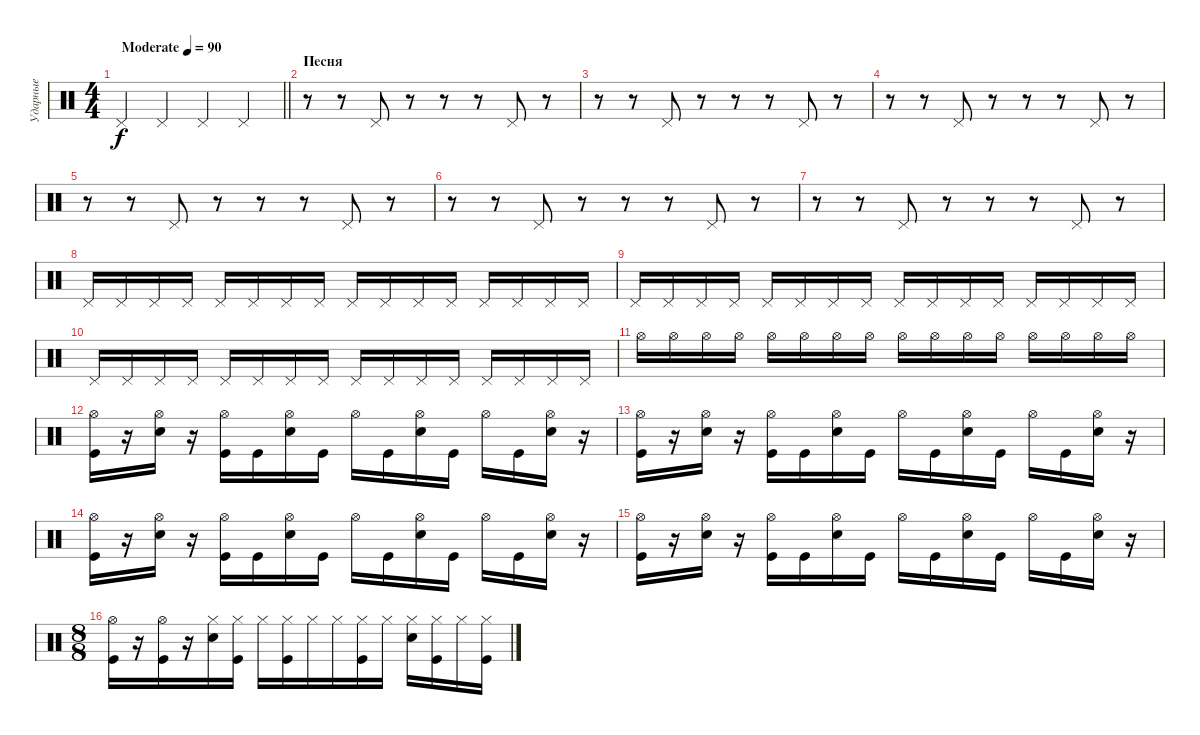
\track ("Ударные" "Ударные") {instrument percussion}
\staff {score}
\articulation defaults
\ts (4 4)
\tempo (90 "Moderate")
\clef neutral
\barLineRight lightlight
\ks c "Pedal Hi-Hat (hit)".4{dy f} "Pedal Hi-Hat (hit)".4 "Pedal Hi-Hat (hit)".4 "Pedal Hi-Hat (hit)".4
|
\section ("" "Песня")
r.8 r.8 "Pedal Hi-Hat (hit)".8 r.8 r.8 r.8 "Pedal Hi-Hat (hit)".8 r.8 |
r.8 r.8 "Pedal Hi-Hat (hit)".8 r.8 r.8 r.8 "Pedal Hi-Hat (hit)".8 r.8 |
r.8 r.8 "Pedal Hi-Hat (hit)".8 r.8 r.8 r.8 "Pedal Hi-Hat (hit)".8 r.8 |
r.8 r.8 "Pedal Hi-Hat (hit)".8 r.8 r.8 r.8 "Pedal Hi-Hat (hit)".8 r.8 |
r.8 r.8 "Pedal Hi-Hat (hit)".8 r.8 r.8 r.8 "Pedal Hi-Hat (hit)".8 r.8 |
r.8 r.8 "Pedal Hi-Hat (hit)".8 r.8 r.8 r.8 "Pedal Hi-Hat (hit)".8 r.8 |
"Pedal Hi-Hat (hit)".16 "Pedal Hi-Hat (hit)".16 "Pedal Hi-Hat (hit)".16 "Pedal Hi-Hat (hit)".16 "Pedal Hi-Hat (hit)".16 "Pedal Hi-Hat (hit)".16 "Pedal Hi-Hat (hit)".16 "Pedal Hi-Hat (hit)".16 "Pedal Hi-Hat (hit)".16 "Pedal Hi-Hat (hit)".16 "Pedal Hi-Hat (hit)".16 "Pedal Hi-Hat (hit)".16 "Pedal Hi-Hat (hit)".16 "Pedal Hi-Hat (hit)".16 "Pedal Hi-Hat (hit)".16 "Pedal Hi-Hat (hit)".16 |
"Pedal Hi-Hat (hit)".16 "Pedal Hi-Hat (hit)".16 "Pedal Hi-Hat (hit)".16 "Pedal Hi-Hat (hit)".16 "Pedal Hi-Hat (hit)".16 "Pedal Hi-Hat (hit)".16 "Pedal Hi-Hat (hit)".16 "Pedal Hi-Hat (hit)".16 "Pedal Hi-Hat (hit)".16 "Pedal Hi-Hat (hit)".16 "Pedal Hi-Hat (hit)".16 "Pedal Hi-Hat (hit)".16 "Pedal Hi-Hat (hit)".16 "Pedal Hi-Hat (hit)".16 "Pedal Hi-Hat (hit)".16 "Pedal Hi-Hat (hit)".16 |
"Pedal Hi-Hat (hit)".16 "Pedal Hi-Hat (hit)".16 "Pedal Hi-Hat (hit)".16 "Pedal Hi-Hat (hit)".16 "Pedal Hi-Hat (hit)".16 "Pedal Hi-Hat (hit)".16 "Pedal Hi-Hat (hit)".16 "Pedal Hi-Hat (hit)".16 "Pedal Hi-Hat (hit)".16 "Pedal Hi-Hat (hit)".16 "Pedal Hi-Hat (hit)".16 "Pedal Hi-Hat (hit)".16 "Pedal Hi-Hat (hit)".16 "Pedal Hi-Hat (hit)".16 "Pedal Hi-Hat (hit)".16 "Pedal Hi-Hat (hit)".16 |
"Hi-Hat (open)".16 "Hi-Hat (open)".16 "Hi-Hat (open)".16 "Hi-Hat (open)".16 "Hi-Hat (open)".16 "Hi-Hat (open)".16 "Hi-Hat (open)".16 "Hi-Hat (open)".16 "Hi-Hat (open)".16 "Hi-Hat (open)".16 "Hi-Hat (open)".16 "Hi-Hat (open)".16 "Hi-Hat (open)".16 "Hi-Hat (open)".16 "Hi-Hat (open)".16 "Hi-Hat (open)".16 |
("Hi-Hat (open)" "Kick (hit)").16 r.16 ("Hi-Hat (open)" "Electric Snare (hit)").16 r.16 ("Hi-Hat (open)" "Kick (hit)").16 "Kick (hit)".16 ("Hi-Hat (open)" "Electric Snare (hit)").16 "Kick (hit)".16 "Hi-Hat (open)".16 "Kick (hit)".16 ("Hi-Hat (open)" "Electric Snare (hit)").16 "Kick (hit)".16 "Hi-Hat (open)".16 "Kick (hit)".16 ("Hi-Hat (open)" "Electric Snare (hit)").16 r.16 |
("Hi-Hat (open)" "Kick (hit)").16 r.16 ("Hi-Hat (open)" "Electric Snare (hit)").16 r.16 ("Hi-Hat (open)" "Kick (hit)").16 "Kick (hit)".16 ("Hi-Hat (open)" "Electric Snare (hit)").16 "Kick (hit)".16 "Hi-Hat (open)".16 "Kick (hit)".16 ("Hi-Hat (open)" "Electric Snare (hit)").16 "Kick (hit)".16 "Hi-Hat (open)".16 "Kick (hit)".16 ("Hi-Hat (open)" "Electric Snare (hit)").16 r.16 |
("Hi-Hat (open)" "Kick (hit)").16 r.16 ("Hi-Hat (open)" "Electric Snare (hit)").16 r.16 ("Hi-Hat (open)" "Kick (hit)").16 "Kick (hit)".16 ("Hi-Hat (open)" "Electric Snare (hit)").16 "Kick (hit)".16 "Hi-Hat (open)".16 "Kick (hit)".16 ("Hi-Hat (open)" "Electric Snare (hit)").16 "Kick (hit)".16 "Hi-Hat (open)".16 "Kick (hit)".16 ("Hi-Hat (open)" "Electric Snare (hit)").16 r.16 |
("Hi-Hat (open)" "Kick (hit)").16 r.16 ("Hi-Hat (open)" "Electric Snare (hit)").16 r.16 ("Hi-Hat (open)" "Kick (hit)").16 "Kick (hit)".16 ("Hi-Hat (open)" "Electric Snare (hit)").16 "Kick (hit)".16 "Hi-Hat (open)".16 "Kick (hit)".16 ("Hi-Hat (open)" "Electric Snare (hit)").16 "Kick (hit)".16 "Hi-Hat (open)".16 "Kick (hit)".16 ("Hi-Hat (open)" "Electric Snare (hit)").16 r.16 |
\ts (8 8)
("Hi-Hat (open)" "Kick (hit)").16 r.16 ("Hi-Hat (open)" "Kick (hit)").16 r.16 ("Hi-Hat (closed)" "Electric Snare (hit)").16 ("Hi-Hat (closed)" "Kick (hit)").16 "Hi-Hat (closed)".16 ("Hi-Hat (closed)" "Kick (hit)").16 "Hi-Hat (closed)".16 "Hi-Hat (closed)".16 ("Hi-Hat (closed)" "Kick (hit)").16 "Hi-Hat (closed)".16 ("Hi-Hat (closed)" "Electric Snare (hit)").16 ("Hi-Hat (closed)" "Kick (hit)").16 "Hi-Hat (closed)".16 ("Hi-Hat (closed)" "Kick (hit)").16
